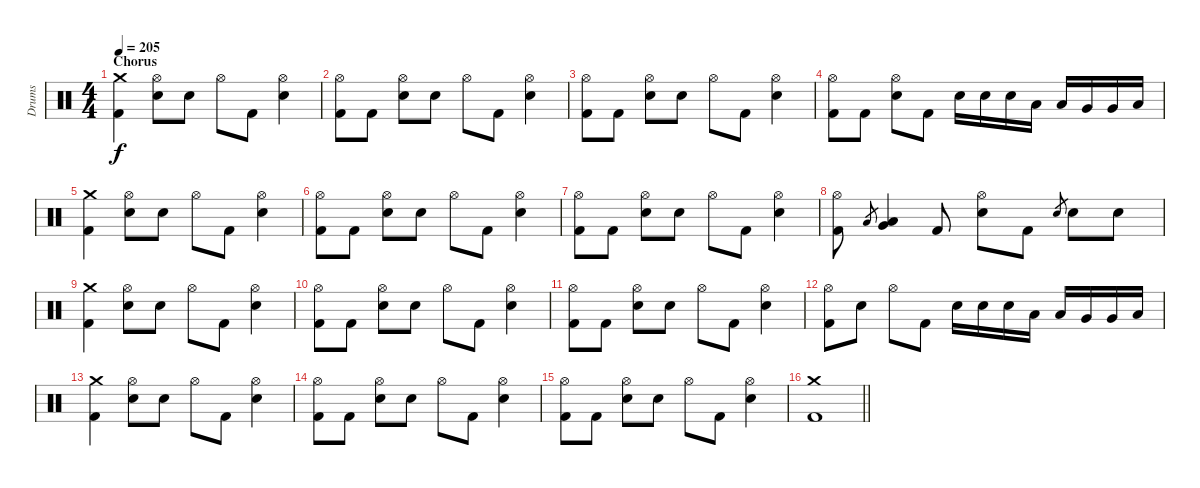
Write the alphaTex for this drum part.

\track ("Drums" "Drums") {instrument percussion}
\staff {score}
\articulation defaults
\ts (4 4)
\section ("" "Chorus")
\tempo 205
\clef neutral
\ks c
("Crash medium (hit)" "Kick (hit) 2").4{dy f} ("Hi-Hat (open)" "Electric Snare (hit)").8 "Electric Snare (hit)".8 "Hi-Hat (open)".8 "Kick (hit) 2".8 ("Hi-Hat (open)" "Electric Snare (hit)").4 |
("Hi-Hat (open)" "Kick (hit) 2").8 "Kick (hit) 2".8 ("Hi-Hat (open)" "Electric Snare (hit)").8 "Electric Snare (hit)".8 "Hi-Hat (open)".8 "Kick (hit) 2".8 ("Hi-Hat (open)" "Electric Snare (hit)").4 |
("Hi-Hat (open)" "Kick (hit) 2").8 "Kick (hit) 2".8 ("Hi-Hat (open)" "Electric Snare (hit)").8 "Electric Snare (hit)".8 "Hi-Hat (open)".8 "Kick (hit) 2".8 ("Hi-Hat (open)" "Electric Snare (hit)").4 |
("Hi-Hat (open)" "Kick (hit) 2").8 "Kick (hit) 2".8 ("Hi-Hat (open)" "Electric Snare (hit)").8 "Kick (hit) 2".8 "Electric Snare (hit)".16 "Electric Snare (hit)".16 "Electric Snare (hit)".16 "Low Tom (hit)".16 "Low Tom (hit)".16 "Very Low Tom (hit)".16 "Very Low Tom (hit)".16 "Low Floor Tom (hit)".16 |
("Crash medium (hit)" "Kick (hit) 2").4 ("Hi-Hat (open)" "Electric Snare (hit)").8 "Electric Snare (hit)".8 "Hi-Hat (open)".8 "Kick (hit) 2".8 ("Hi-Hat (open)" "Electric Snare (hit)").4 |
("Hi-Hat (open)" "Kick (hit) 2").8 "Kick (hit) 2".8 ("Hi-Hat (open)" "Electric Snare (hit)").8 "Electric Snare (hit)".8 "Hi-Hat (open)".8 "Kick (hit) 2".8 ("Hi-Hat (open)" "Electric Snare (hit)").4 |
("Hi-Hat (open)" "Kick (hit) 2").8 "Kick (hit) 2".8 ("Hi-Hat (open)" "Electric Snare (hit)").8 "Electric Snare (hit)".8 "Hi-Hat (open)".8 "Kick (hit) 2".8 ("Hi-Hat (open)" "Electric Snare (hit)").4 |
("Hi-Hat (open)" "Kick (hit) 2").8 "Low Tom (hit)".8{gr} ("Very Low Tom (hit)" "Low Tom (hit)").4 "Kick (hit) 2".8 ("Hi-Hat (open)" "Electric Snare (hit)").8 "Kick (hit) 2".8 "Electric Snare (hit)".8{gr} "Electric Snare (hit)".8 "Electric Snare (hit)".8 |
("Crash medium (hit)" "Kick (hit) 2").4 ("Hi-Hat (open)" "Electric Snare (hit)").8 "Electric Snare (hit)".8 "Hi-Hat (open)".8 "Kick (hit) 2".8 ("Hi-Hat (open)" "Electric Snare (hit)").4 |
("Hi-Hat (open)" "Kick (hit) 2").8 "Kick (hit) 2".8 ("Hi-Hat (open)" "Electric Snare (hit)").8 "Electric Snare (hit)".8 "Hi-Hat (open)".8 "Kick (hit) 2".8 ("Hi-Hat (open)" "Electric Snare (hit)").4 |
("Hi-Hat (open)" "Kick (hit) 2").8 "Kick (hit) 2".8 ("Hi-Hat (open)" "Electric Snare (hit)").8 "Electric Snare (hit)".8 "Hi-Hat (open)".8 "Kick (hit) 2".8 ("Hi-Hat (open)" "Electric Snare (hit)").4 |
("Hi-Hat (open)" "Kick (hit) 2").8 "Electric Snare (hit)".8 "Hi-Hat (open)".8 "Kick (hit) 2".8 "Electric Snare (hit)".16 "Electric Snare (hit)".16 "Electric Snare (hit)".16 "Low Tom (hit)".16 "Low Tom (hit)".16 "Very Low Tom (hit)".16 "Very Low Tom (hit)".16 "Low Floor Tom (hit)".16 |
("Crash medium (hit)" "Kick (hit) 2").4 ("Hi-Hat (open)" "Electric Snare (hit)").8 "Electric Snare (hit)".8 "Hi-Hat (open)".8 "Kick (hit) 2".8 ("Hi-Hat (open)" "Electric Snare (hit)").4 |
("Hi-Hat (open)" "Kick (hit) 2").8 "Kick (hit) 2".8 ("Hi-Hat (open)" "Electric Snare (hit)").8 "Electric Snare (hit)".8 "Hi-Hat (open)".8 "Kick (hit) 2".8 ("Hi-Hat (open)" "Electric Snare (hit)").4 |
("Hi-Hat (open)" "Kick (hit) 2").8 "Kick (hit) 2".8 ("Hi-Hat (open)" "Electric Snare (hit)").8 "Electric Snare (hit)".8 "Hi-Hat (open)".8 "Kick (hit) 2".8 ("Hi-Hat (open)" "Electric Snare (hit)").4 |
\barLineRight lightlight
("Crash medium (hit)" "Kick (hit) 2").1
